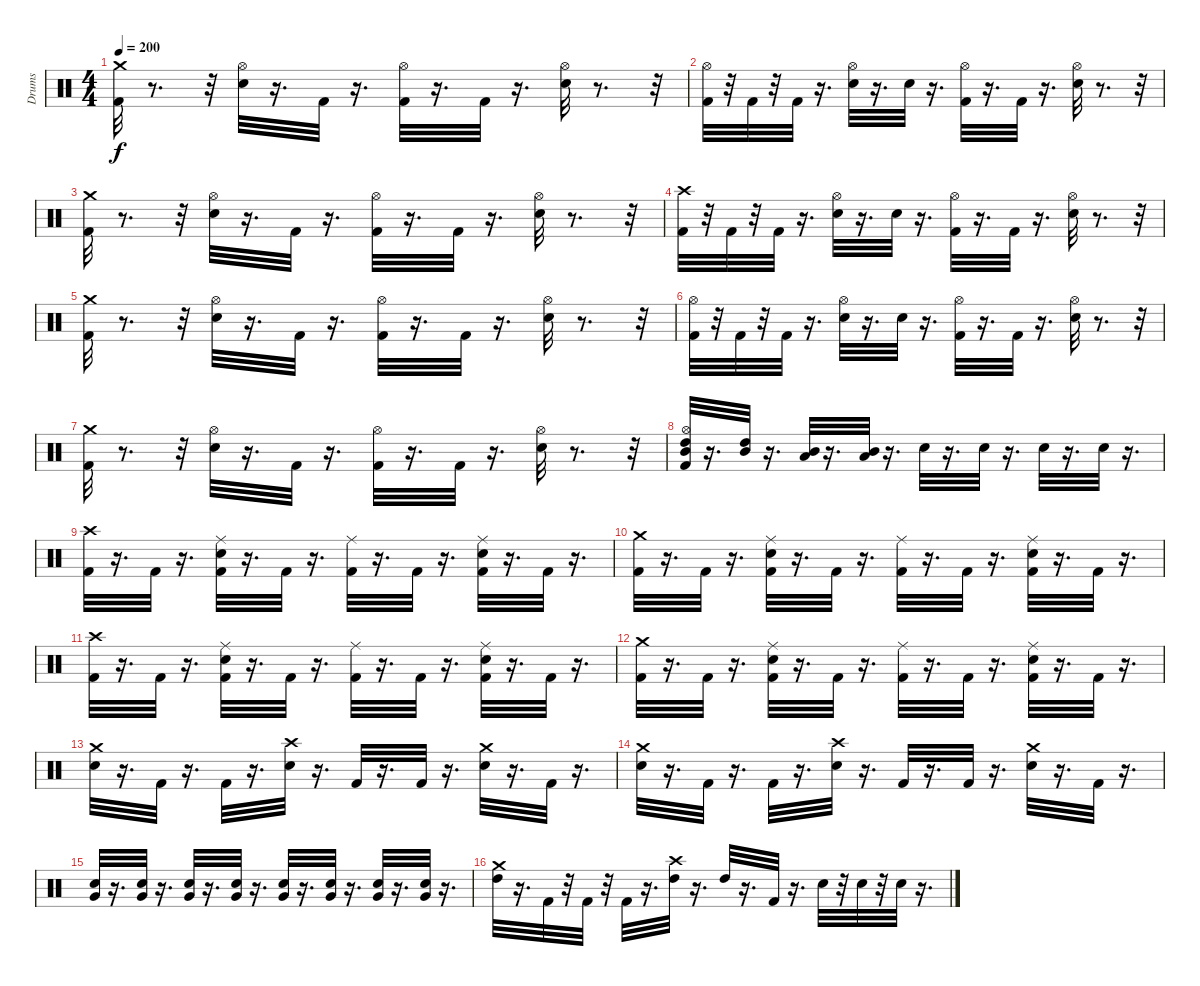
\track ("Drums" "Drums") {instrument percussion}
\staff {score}
\articulation defaults
\ts (4 4)
\tempo 200
\clef neutral
\ks c
("Crash medium (hit)" "Kick (hit) 2").32{dy f} r.8{d} r.32 ("Hi-Hat (open)" "Electric Snare (hit)").32 r.16{d} "Kick (hit) 2".32 r.16{d} ("Hi-Hat (open)" "Kick (hit) 2").32 r.16{d} "Kick (hit) 2".32 r.16{d} ("Hi-Hat (open)" "Electric Snare (hit)").32 r.8{d} r.32 |
("Hi-Hat (open)" "Kick (hit) 2").32 r.32 "Kick (hit) 2".32 r.32 "Kick (hit) 2".32 r.16{d} ("Hi-Hat (open)" "Electric Snare (hit)").32 r.16{d} "Electric Snare (hit)".32 r.16{d} ("Hi-Hat (open)" "Kick (hit) 2").32 r.16{d} "Kick (hit) 2".32 r.16{d} ("Hi-Hat (open)" "Electric Snare (hit)").32 r.8{d} r.32 |
("Crash medium (hit)" "Kick (hit) 2").32 r.8{d} r.32 ("Hi-Hat (open)" "Electric Snare (hit)").32 r.16{d} "Kick (hit) 2".32 r.16{d} ("Hi-Hat (open)" "Kick (hit) 2").32 r.16{d} "Kick (hit) 2".32 r.16{d} ("Hi-Hat (open)" "Electric Snare (hit)").32 r.8{d} r.32 |
("Crash high (hit)" "Kick (hit) 2").32 r.32 "Kick (hit) 2".32 r.32 "Kick (hit) 2".32 r.16{d} ("Hi-Hat (open)" "Electric Snare (hit)").32 r.16{d} "Electric Snare (hit)".32 r.16{d} ("Hi-Hat (open)" "Kick (hit) 2").32 r.16{d} "Kick (hit) 2".32 r.16{d} ("Hi-Hat (open)" "Electric Snare (hit)").32 r.8{d} r.32 |
("Crash medium (hit)" "Kick (hit) 2").32 r.8{d} r.32 ("Hi-Hat (open)" "Electric Snare (hit)").32 r.16{d} "Kick (hit) 2".32 r.16{d} ("Hi-Hat (open)" "Kick (hit) 2").32 r.16{d} "Kick (hit) 2".32 r.16{d} ("Hi-Hat (open)" "Electric Snare (hit)").32 r.8{d} r.32 |
("Hi-Hat (open)" "Kick (hit) 2").32 r.32 "Kick (hit) 2".32 r.32 "Kick (hit) 2".32 r.16{d} ("Hi-Hat (open)" "Electric Snare (hit)").32 r.16{d} "Electric Snare (hit)".32 r.16{d} ("Hi-Hat (open)" "Kick (hit) 2").32 r.16{d} "Kick (hit) 2".32 r.16{d} ("Hi-Hat (open)" "Electric Snare (hit)").32 r.8{d} r.32 |
("Crash medium (hit)" "Kick (hit) 2").32 r.8{d} r.32 ("Hi-Hat (open)" "Electric Snare (hit)").32 r.16{d} "Kick (hit) 2".32 r.16{d} ("Hi-Hat (open)" "Kick (hit) 2").32 r.16{d} "Kick (hit) 2".32 r.16{d} ("Hi-Hat (open)" "Electric Snare (hit)").32 r.8{d} r.32 |
("Mid Tom (hit)" "High Tom (hit)" "Hi-Hat (open)" "Kick (hit) 2").32 r.16{d} ("Mid Tom (hit)" "High Tom (hit)").32 r.16{d} ("Low Tom (hit)" "Mid Tom (hit)").32 r.16{d} ("Low Tom (hit)" "Mid Tom (hit)").32 r.16{d} "Electric Snare (hit)".32 r.16{d} "Electric Snare (hit)".32 r.16{d} "Electric Snare (hit)".32 r.16{d} "Electric Snare (hit)".32 r.16{d} |
("Crash high (hit)" "Kick (hit) 2").32 r.16{d} "Kick (hit) 2".32 r.16{d} ("Ride (middle)" "Electric Snare (hit)" "Kick (hit) 2").32 r.16{d} "Kick (hit) 2".32 r.16{d} ("Ride (middle)" "Kick (hit) 2").32 r.16{d} "Kick (hit) 2".32 r.16{d} ("Ride (middle)" "Kick (hit) 2" "Electric Snare (hit)").32 r.16{d} "Kick (hit) 2".32 r.16{d} |
("Crash medium (hit)" "Kick (hit) 2").32 r.16{d} "Kick (hit) 2".32 r.16{d} ("Electric Snare (hit)" "Kick (hit) 2" "Ride (middle)").32 r.16{d} "Kick (hit) 2".32 r.16{d} ("Ride (middle)" "Kick (hit) 2").32 r.16{d} "Kick (hit) 2".32 r.16{d} ("Ride (middle)" "Kick (hit) 2" "Electric Snare (hit)").32 r.16{d} "Kick (hit) 2".32 r.16{d} |
("Crash high (hit)" "Kick (hit) 2").32 r.16{d} "Kick (hit) 2".32 r.16{d} ("Ride (middle)" "Electric Snare (hit)" "Kick (hit) 2").32 r.16{d} "Kick (hit) 2".32 r.16{d} ("Ride (middle)" "Kick (hit) 2").32 r.16{d} "Kick (hit) 2".32 r.16{d} ("Ride (middle)" "Kick (hit) 2" "Electric Snare (hit)").32 r.16{d} "Kick (hit) 2".32 r.16{d} |
("Crash medium (hit)" "Kick (hit) 2").32 r.16{d} "Kick (hit) 2".32 r.16{d} ("Electric Snare (hit)" "Kick (hit) 2" "Ride (middle)").32 r.16{d} "Kick (hit) 2".32 r.16{d} ("Ride (middle)" "Kick (hit) 2").32 r.16{d} "Kick (hit) 2".32 r.16{d} ("Ride (middle)" "Kick (hit) 2" "Electric Snare (hit)").32 r.16{d} "Kick (hit) 2".32 r.16{d} |
("Crash medium (hit)" "Electric Snare (hit)").32 r.16{d} "Kick (hit) 2".32 r.16{d} "Kick (hit) 2".32 r.16{d} ("Electric Snare (hit)" "Crash high (hit)").32 r.16{d} "Kick (hit) 2".32 r.16{d} "Kick (hit) 2".32 r.16{d} ("Electric Snare (hit)" "Crash medium (hit)").32 r.16{d} "Kick (hit) 2".32 r.16{d} |
("Electric Snare (hit)" "Crash medium (hit)").32 r.16{d} "Kick (hit) 2".32 r.16{d} "Kick (hit) 2".32 r.16{d} ("Electric Snare (hit)" "Crash high (hit)").32 r.16{d} "Kick (hit) 2".32 r.16{d} "Kick (hit) 2".32 r.16{d} ("Electric Snare (hit)" "Crash medium (hit)").32 r.16{d} "Kick (hit) 2".32 r.16{d} |
("Electric Snare (hit)" "Very Low Tom (hit)").32 r.16{d} ("Electric Snare (hit)" "Very Low Tom (hit)").32 r.16{d} ("Electric Snare (hit)" "Very Low Tom (hit)").32 r.16{d} ("Electric Snare (hit)" "Very Low Tom (hit)").32 r.16{d} ("Electric Snare (hit)" "Very Low Tom (hit)").32 r.16{d} ("Electric Snare (hit)" "Very Low Tom (hit)").32 r.16{d} ("Electric Snare (hit)" "Very Low Tom (hit)").32 r.16{d} ("Electric Snare (hit)" "Very Low Tom (hit)").32 r.16{d} |
("High Tom (hit)" "Crash medium (hit)").32 r.16{d} "Kick (hit) 2".32 r.32 "Kick (hit) 2".32 r.32 "Kick (hit) 2".32 r.16{d} ("Crash high (hit)" "High Tom (hit)").32 r.16{d} "High Tom (hit)".32 r.16{d} "Kick (hit) 2".32 r.16{d} "Electric Snare (hit)".32 r.32 "Electric Snare (hit)".32 r.32 "Electric Snare (hit)".32 r.16{d}
